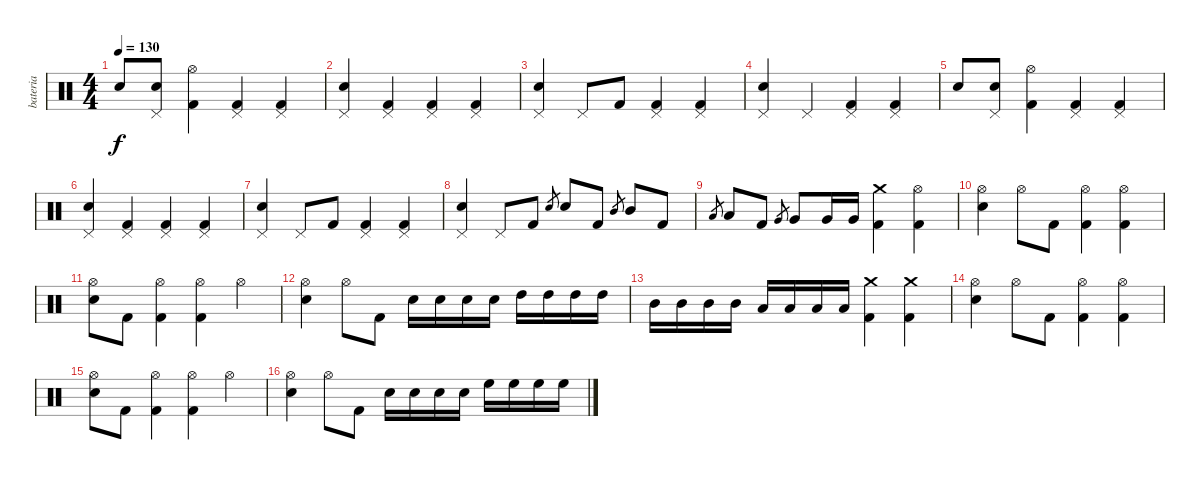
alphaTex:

\track ("bateria" "bateria") {instrument percussion}
\staff {score}
\articulation defaults
\ts (4 4)
\tempo 130
\clef neutral
\ks c "Snare (hit) 2".8{dy f}
("Pedal Hi-Hat (hit)" "Snare (hit) 2").8 ("Hi-Hat (open)" "Kick (hit) 2").4 ("Pedal Hi-Hat (hit)" "Kick (hit) 2").4 ("Pedal Hi-Hat (hit)" "Kick (hit) 2").4 |
("Pedal Hi-Hat (hit)" "Snare (hit) 2").4 ("Pedal Hi-Hat (hit)" "Kick (hit) 2").4 ("Pedal Hi-Hat (hit)" "Kick (hit) 2").4 ("Pedal Hi-Hat (hit)" "Kick (hit) 2").4 |
("Pedal Hi-Hat (hit)" "Snare (hit) 2").4 "Pedal Hi-Hat (hit)".8 "Kick (hit) 2".8 ("Pedal Hi-Hat (hit)" "Kick (hit) 2").4 ("Pedal Hi-Hat (hit)" "Kick (hit) 2").4 |
("Pedal Hi-Hat (hit)" "Snare (hit) 2").4 "Pedal Hi-Hat (hit)".4 ("Pedal Hi-Hat (hit)" "Kick (hit) 2").4 ("Pedal Hi-Hat (hit)" "Kick (hit) 2").4 |
"Snare (hit) 2".8 ("Pedal Hi-Hat (hit)" "Snare (hit) 2").8 ("Hi-Hat (open)" "Kick (hit) 2").4 ("Pedal Hi-Hat (hit)" "Kick (hit) 2").4 ("Pedal Hi-Hat (hit)" "Kick (hit) 2").4 |
("Pedal Hi-Hat (hit)" "Snare (hit) 2").4 ("Pedal Hi-Hat (hit)" "Kick (hit) 2").4 ("Pedal Hi-Hat (hit)" "Kick (hit) 2").4 ("Pedal Hi-Hat (hit)" "Kick (hit) 2").4 |
("Pedal Hi-Hat (hit)" "Snare (hit) 2").4 "Pedal Hi-Hat (hit)".8 "Kick (hit) 2".8 ("Pedal Hi-Hat (hit)" "Kick (hit) 2").4 ("Pedal Hi-Hat (hit)" "Kick (hit) 2").4 |
("Pedal Hi-Hat (hit)" "Snare (hit) 2").4 "Pedal Hi-Hat (hit)".8 "Kick (hit) 2".8 "Snare (hit) 2".8{gr} "Snare (hit) 2".8 "Kick (hit) 2".8 "Mid Tom (hit)".8{gr} "Mid Tom (hit)".8 "Kick (hit) 2".8 |
"Low Tom (hit)".8{gr} "Low Tom (hit)".8 "Kick (hit) 2".8 "Very Low Tom (hit)".8{gr} "Very Low Tom (hit)".8 "Very Low Tom (hit)".16 "Very Low Tom (hit)".16 ("Crash medium (hit)" "Kick (hit) 2").4 ("Hi-Hat (open)" "Kick (hit) 2").4 |
("Hi-Hat (open)" "Snare (hit) 2").4 "Hi-Hat (open)".8 "Kick (hit) 2".8 ("Hi-Hat (open)" "Kick (hit) 2").4 ("Hi-Hat (open)" "Kick (hit) 2").4 |
("Hi-Hat (open)" "Snare (hit) 2").8 "Kick (hit) 2".8 ("Hi-Hat (open)" "Kick (hit) 2").4 ("Hi-Hat (open)" "Kick (hit) 2").4 "Hi-Hat (open)".4 |
("Hi-Hat (open)" "Snare (hit) 2").4 "Hi-Hat (open)".8 "Kick (hit) 2".8 "Snare (hit) 2".16 "Snare (hit) 2".16 "Snare (hit) 2".16 "Snare (hit) 2".16 "High Tom (hit)".16 "High Tom (hit)".16 "High Tom (hit)".16 "High Tom (hit)".16 |
"Mid Tom (hit)".16 "Mid Tom (hit)".16 "Mid Tom (hit)".16 "Mid Tom (hit)".16 "Low Tom (hit)".16 "Low Tom (hit)".16 "Low Tom (hit)".16 "Low Tom (hit)".16 ("Crash medium (hit)" "Kick (hit) 2").4 ("Crash medium (hit)" "Kick (hit) 2").4 |
("Hi-Hat (open)" "Snare (hit) 2").4 "Hi-Hat (open)".8 "Kick (hit) 2".8 ("Hi-Hat (open)" "Kick (hit) 2").4 ("Hi-Hat (open)" "Kick (hit) 2").4 |
("Hi-Hat (open)" "Snare (hit) 2").8 "Kick (hit) 2".8 ("Hi-Hat (open)" "Kick (hit) 2").4 ("Hi-Hat (open)" "Kick (hit) 2").4 "Hi-Hat (open)".4 |
("Hi-Hat (open)" "Snare (hit) 2").4 "Hi-Hat (open)".8 "Kick (hit) 2".8 "Snare (hit) 2".16 "Snare (hit) 2".16 "Snare (hit) 2".16 "Snare (hit) 2".16 "High Floor Tom (hit)".16 "High Floor Tom (hit)".16 "High Floor Tom (hit)".16 "High Floor Tom (hit)".16
